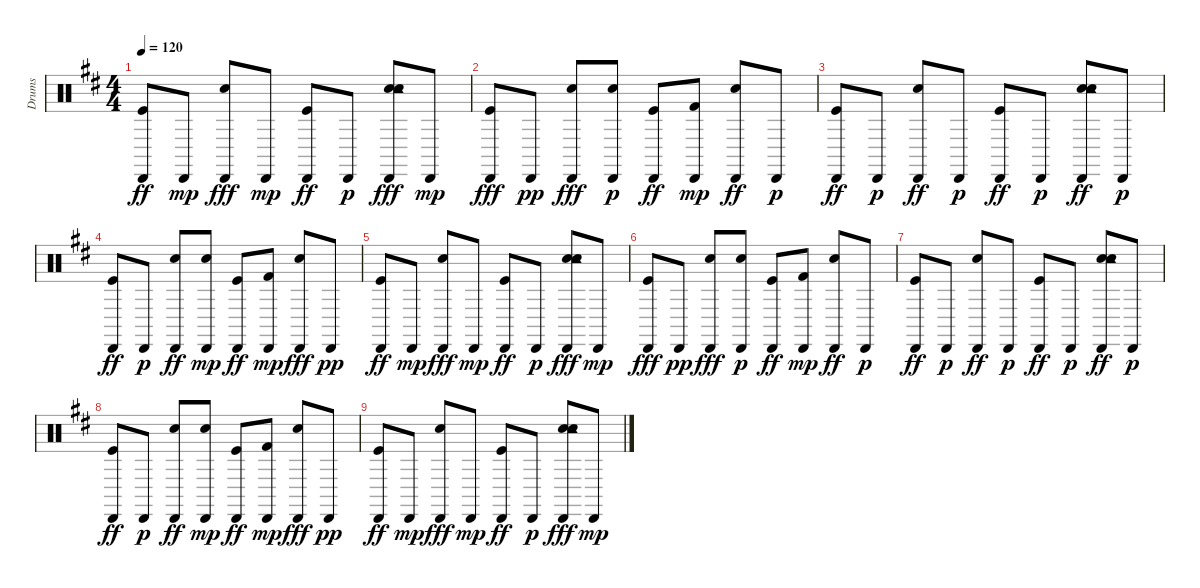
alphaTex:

\track ("Drums" "Drums") {instrument percussion}
\staff {score}
\articulation defaults
\ts (4 4)
\tempo 120
\clef neutral
\ks d
("Kick (hit)" "Cabasa (hit)").8{dy ff} "Cabasa (hit)".8{dy mp} ("Electric Snare (hit)" "Cabasa (hit)").8{dy fff} "Cabasa (hit)".8{dy mp} ("Kick (hit)" "Cabasa (hit)").8{dy ff} "Cabasa (hit)".8{dy p} ("Hand Clap (hit)" "Electric Snare (hit)" "Tambourine (hit)" "Cabasa (hit)").8{dy fff} "Cabasa (hit)".8{dy mp} |
("Kick (hit)" "Cabasa (hit)").8{dy fff} "Cabasa (hit)".8{dy pp} ("Electric Snare (hit)" "Cabasa (hit)").8{dy fff} ("Electric Snare (hit)" "Cabasa (hit)").8{dy p} ("Kick (hit)" "Cabasa (hit)").8{dy ff} ("Kick (hit) 2" "Cabasa (hit)").8{dy mp} ("Electric Snare (hit)" "Cabasa (hit)").8{dy ff} "Cabasa (hit)".8{dy p} |
("Kick (hit)" "Cabasa (hit)").8{dy ff} "Cabasa (hit)".8{dy p} ("Electric Snare (hit)" "Cabasa (hit)").8{dy ff} "Cabasa (hit)".8{dy p} ("Kick (hit)" "Cabasa (hit)").8{dy ff} "Cabasa (hit)".8{dy p} ("Hand Clap (hit)" "Electric Snare (hit)" "Tambourine (hit)" "Cabasa (hit)").8{dy ff} "Cabasa (hit)".8{dy p} |
("Kick (hit)" "Cabasa (hit)").8{dy ff} "Cabasa (hit)".8{dy p} ("Electric Snare (hit)" "Cabasa (hit)").8{dy ff} ("Electric Snare (hit)" "Cabasa (hit)").8{dy mp} ("Kick (hit)" "Cabasa (hit)").8{dy ff} ("Kick (hit) 2" "Cabasa (hit)").8{dy mp} ("Electric Snare (hit)" "Cabasa (hit)").8{dy fff} "Cabasa (hit)".8{dy pp} |
("Kick (hit)" "Cabasa (hit)").8{dy ff} "Cabasa (hit)".8{dy mp} ("Electric Snare (hit)" "Cabasa (hit)").8{dy fff} "Cabasa (hit)".8{dy mp} ("Kick (hit)" "Cabasa (hit)").8{dy ff} "Cabasa (hit)".8{dy p} ("Hand Clap (hit)" "Electric Snare (hit)" "Tambourine (hit)" "Cabasa (hit)").8{dy fff} "Cabasa (hit)".8{dy mp} |
("Kick (hit)" "Cabasa (hit)").8{dy fff} "Cabasa (hit)".8{dy pp} ("Electric Snare (hit)" "Cabasa (hit)").8{dy fff} ("Electric Snare (hit)" "Cabasa (hit)").8{dy p} ("Kick (hit)" "Cabasa (hit)").8{dy ff} ("Kick (hit) 2" "Cabasa (hit)").8{dy mp} ("Electric Snare (hit)" "Cabasa (hit)").8{dy ff} "Cabasa (hit)".8{dy p} |
("Kick (hit)" "Cabasa (hit)").8{dy ff} "Cabasa (hit)".8{dy p} ("Electric Snare (hit)" "Cabasa (hit)").8{dy ff} "Cabasa (hit)".8{dy p} ("Kick (hit)" "Cabasa (hit)").8{dy ff} "Cabasa (hit)".8{dy p} ("Hand Clap (hit)" "Electric Snare (hit)" "Tambourine (hit)" "Cabasa (hit)").8{dy ff} "Cabasa (hit)".8{dy p} |
("Kick (hit)" "Cabasa (hit)").8{dy ff} "Cabasa (hit)".8{dy p} ("Electric Snare (hit)" "Cabasa (hit)").8{dy ff} ("Electric Snare (hit)" "Cabasa (hit)").8{dy mp} ("Kick (hit)" "Cabasa (hit)").8{dy ff} ("Kick (hit) 2" "Cabasa (hit)").8{dy mp} ("Electric Snare (hit)" "Cabasa (hit)").8{dy fff} "Cabasa (hit)".8{dy pp} |
("Kick (hit)" "Cabasa (hit)").8{dy ff} "Cabasa (hit)".8{dy mp} ("Electric Snare (hit)" "Cabasa (hit)").8{dy fff} "Cabasa (hit)".8{dy mp} ("Kick (hit)" "Cabasa (hit)").8{dy ff} "Cabasa (hit)".8{dy p} ("Hand Clap (hit)" "Electric Snare (hit)" "Tambourine (hit)" "Cabasa (hit)").8{dy fff} "Cabasa (hit)".8{dy mp}
